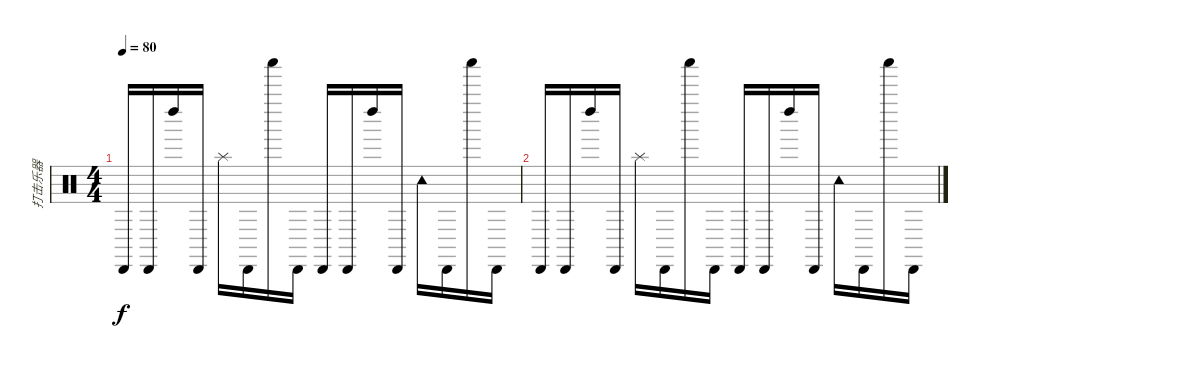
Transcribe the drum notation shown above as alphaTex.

\track ("打击乐器" "打击乐器") {instrument percussion}
\staff {score}
\articulation defaults
\ts (4 4)
\tempo 80
\clef neutral
\ks c "Cabasa (hit)".16{dy f} "Cabasa (hit)".16 "Left Maraca (hit)".16 "Cabasa (hit)".16 "Splash (hit)".16 "Cabasa (hit)".16 "Shaker (hit)".16 "Cabasa (hit)".16 "Cabasa (hit)".16 "Cabasa (hit)".16 "Left Maraca (hit)".16 "Cabasa (hit)".16 "Tambourine (hit)".16 "Cabasa (hit)".16 "Shaker (hit)".16 "Cabasa (hit)".16
|
"Cabasa (hit)".16 "Cabasa (hit)".16 "Left Maraca (hit)".16 "Cabasa (hit)".16 "Splash (hit)".16 "Cabasa (hit)".16 "Shaker (hit)".16 "Cabasa (hit)".16 "Cabasa (hit)".16 "Cabasa (hit)".16 "Left Maraca (hit)".16 "Cabasa (hit)".16 "Tambourine (hit)".16 "Cabasa (hit)".16 "Shaker (hit)".16 "Cabasa (hit)".16
